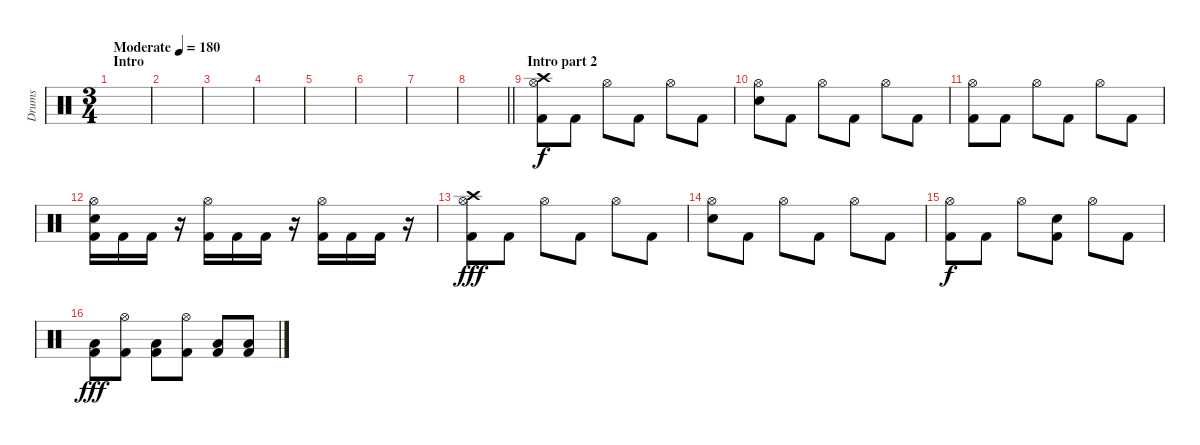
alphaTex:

\track ("Drums" "Drums") {instrument percussion}
\staff {score}
\articulation defaults
\ts (3 4)
\section ("" "Intro")
\tempo (180 "Moderate")
\clef neutral
\ks c
|
|
|
|
|
|
|
\barLineRight lightlight
|
\section ("" "Intro part 2")
("Crash high (hit)" "Hi-Hat (open)" "Kick (hit) 2").8 "Kick (hit) 2".8 "Hi-Hat (open)".8 "Kick (hit) 2".8 "Hi-Hat (open)".8 "Kick (hit) 2".8 |
("Hi-Hat (open)" "Electric Snare (hit)").8 "Kick (hit) 2".8 "Hi-Hat (open)".8 "Kick (hit) 2".8 "Hi-Hat (open)".8 "Kick (hit) 2".8 |
("Hi-Hat (open)" "Kick (hit) 2").8{dy f} "Kick (hit) 2".8 "Hi-Hat (open)".8 "Kick (hit) 2".8 "Hi-Hat (open)".8 "Kick (hit) 2".8 |
("Hi-Hat (open)" "Electric Snare (hit)" "Kick (hit) 2").16 "Kick (hit) 2".16 "Kick (hit) 2".16 r.16 ("Hi-Hat (open)" "Kick (hit) 2").16 "Kick (hit) 2".16 "Kick (hit) 2".16 r.16 ("Hi-Hat (open)" "Kick (hit) 2").16 "Kick (hit) 2".16 "Kick (hit) 2".16 r.16 |
("Crash high (hit)" "Hi-Hat (open)" "Kick (hit) 2").8{dy fff} "Kick (hit) 2".8 "Hi-Hat (open)".8 "Kick (hit) 2".8 "Hi-Hat (open)".8 "Kick (hit) 2".8 |
("Hi-Hat (open)" "Electric Snare (hit)").8 "Kick (hit) 2".8 "Hi-Hat (open)".8 "Kick (hit) 2".8 "Hi-Hat (open)".8 "Kick (hit) 2".8 |
("Hi-Hat (open)" "Kick (hit) 2").8{dy f} "Kick (hit) 2".8 "Hi-Hat (open)".8 ("Electric Snare (hit)" "Kick (hit) 2").8 "Hi-Hat (open)".8 "Kick (hit) 2".8 |
("Low Floor Tom (hit)" "Kick (hit) 2").8{dy fff} ("Hi-Hat (open)" "Kick (hit) 2").8 ("Low Floor Tom (hit)" "Kick (hit) 2").8 ("Hi-Hat (open)" "Kick (hit) 2").8 ("Low Floor Tom (hit)" "Kick (hit) 2").8 ("Low Floor Tom (hit)" "Kick (hit) 2").8
